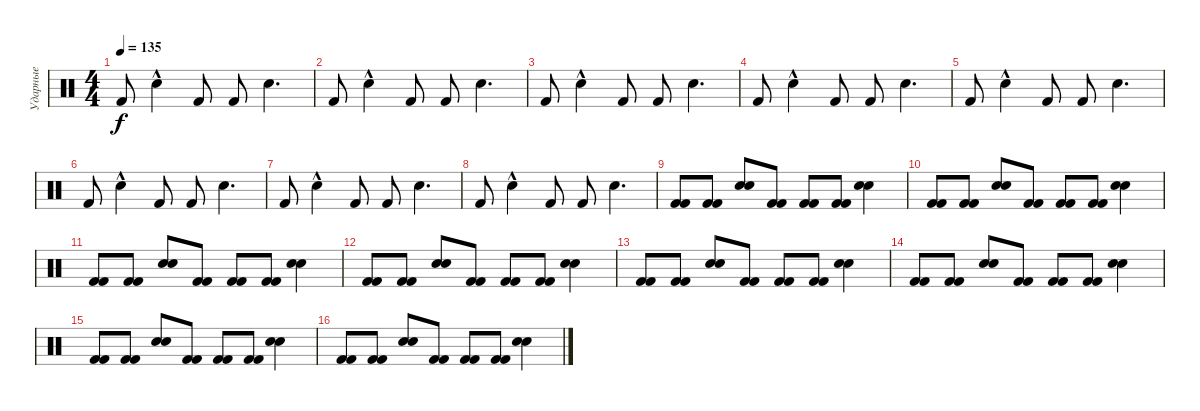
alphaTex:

\track ("Ударные" "Ударные") {instrument percussion}
\staff {score}
\articulation defaults
\ts (4 4)
\tempo 135
\clef neutral
\ks c "Kick (hit) 2".8{dy f} "Snare (hit) 2"{hac}.4 "Kick (hit) 2".8 "Kick (hit) 2".8 "Snare (hit) 2".4{d}
|
"Kick (hit) 2".8 "Snare (hit) 2"{hac}.4 "Kick (hit) 2".8 "Kick (hit) 2".8 "Snare (hit) 2".4{d} |
"Kick (hit) 2".8 "Snare (hit) 2"{hac}.4 "Kick (hit) 2".8 "Kick (hit) 2".8 "Snare (hit) 2".4{d} |
"Kick (hit) 2".8 "Snare (hit) 2"{hac}.4 "Kick (hit) 2".8 "Kick (hit) 2".8 "Snare (hit) 2".4{d} |
"Kick (hit) 2".8 "Snare (hit) 2"{hac}.4 "Kick (hit) 2".8 "Kick (hit) 2".8 "Snare (hit) 2".4{d} |
"Kick (hit) 2".8 "Snare (hit) 2"{hac}.4 "Kick (hit) 2".8 "Kick (hit) 2".8 "Snare (hit) 2".4{d} |
"Kick (hit) 2".8 "Snare (hit) 2"{hac}.4 "Kick (hit) 2".8 "Kick (hit) 2".8 "Snare (hit) 2".4{d} |
"Kick (hit) 2".8 "Snare (hit) 2"{hac}.4 "Kick (hit) 2".8 "Kick (hit) 2".8 "Snare (hit) 2".4{d} |
("Kick (hit) 2" "Kick (hit) 2").8 ("Kick (hit) 2" "Kick (hit) 2").8 ("Snare (hit) 2" "Snare (hit) 2").8 ("Kick (hit) 2" "Kick (hit) 2").8 ("Kick (hit) 2" "Kick (hit) 2").8 ("Kick (hit) 2" "Kick (hit) 2").8 ("Snare (hit) 2" "Snare (hit) 2").4 |
("Kick (hit) 2" "Kick (hit) 2").8 ("Kick (hit) 2" "Kick (hit) 2").8 ("Snare (hit) 2" "Snare (hit) 2").8 ("Kick (hit) 2" "Kick (hit) 2").8 ("Kick (hit) 2" "Kick (hit) 2").8 ("Kick (hit) 2" "Kick (hit) 2").8 ("Snare (hit) 2" "Snare (hit) 2").4 |
("Kick (hit) 2" "Kick (hit) 2").8 ("Kick (hit) 2" "Kick (hit) 2").8 ("Snare (hit) 2" "Snare (hit) 2").8 ("Kick (hit) 2" "Kick (hit) 2").8 ("Kick (hit) 2" "Kick (hit) 2").8 ("Kick (hit) 2" "Kick (hit) 2").8 ("Snare (hit) 2" "Snare (hit) 2").4 |
("Kick (hit) 2" "Kick (hit) 2").8 ("Kick (hit) 2" "Kick (hit) 2").8 ("Snare (hit) 2" "Snare (hit) 2").8 ("Kick (hit) 2" "Kick (hit) 2").8 ("Kick (hit) 2" "Kick (hit) 2").8 ("Kick (hit) 2" "Kick (hit) 2").8 ("Snare (hit) 2" "Snare (hit) 2").4 |
("Kick (hit) 2" "Kick (hit) 2").8 ("Kick (hit) 2" "Kick (hit) 2").8 ("Snare (hit) 2" "Snare (hit) 2").8 ("Kick (hit) 2" "Kick (hit) 2").8 ("Kick (hit) 2" "Kick (hit) 2").8 ("Kick (hit) 2" "Kick (hit) 2").8 ("Snare (hit) 2" "Snare (hit) 2").4 |
("Kick (hit) 2" "Kick (hit) 2").8 ("Kick (hit) 2" "Kick (hit) 2").8 ("Snare (hit) 2" "Snare (hit) 2").8 ("Kick (hit) 2" "Kick (hit) 2").8 ("Kick (hit) 2" "Kick (hit) 2").8 ("Kick (hit) 2" "Kick (hit) 2").8 ("Snare (hit) 2" "Snare (hit) 2").4 |
("Kick (hit) 2" "Kick (hit) 2").8 ("Kick (hit) 2" "Kick (hit) 2").8 ("Snare (hit) 2" "Snare (hit) 2").8 ("Kick (hit) 2" "Kick (hit) 2").8 ("Kick (hit) 2" "Kick (hit) 2").8 ("Kick (hit) 2" "Kick (hit) 2").8 ("Snare (hit) 2" "Snare (hit) 2").4 |
("Kick (hit) 2" "Kick (hit) 2").8 ("Kick (hit) 2" "Kick (hit) 2").8 ("Snare (hit) 2" "Snare (hit) 2").8 ("Kick (hit) 2" "Kick (hit) 2").8 ("Kick (hit) 2" "Kick (hit) 2").8 ("Kick (hit) 2" "Kick (hit) 2").8 ("Snare (hit) 2" "Snare (hit) 2").4
